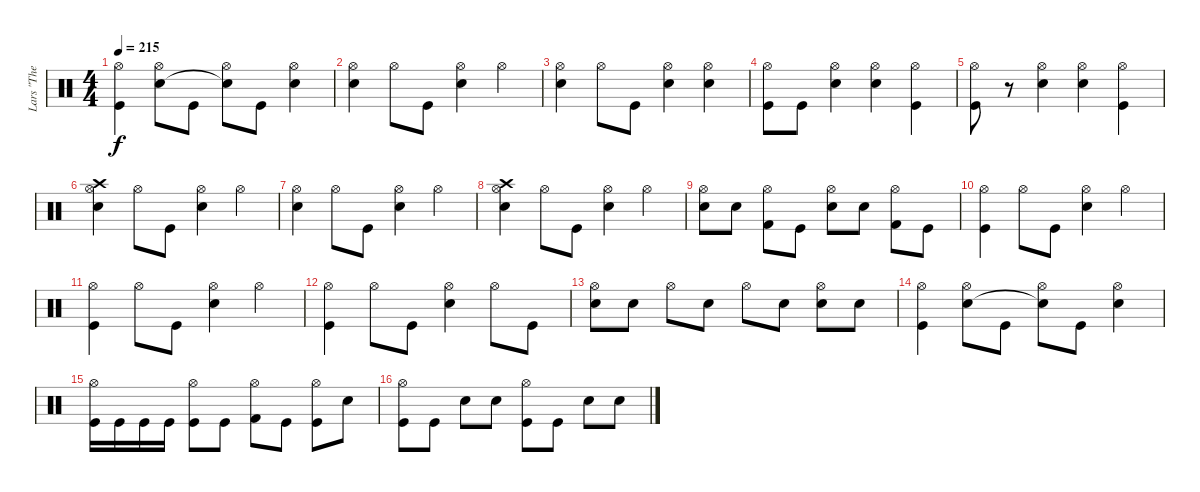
\track ("Lars \"The Antichrist\" Ulrich" "Lars \"The ") {instrument percussion}
\staff {score}
\articulation defaults
\ts (4 4)
\tempo 215
\clef neutral
\ks c
("Hi-Hat (open)" "Kick (hit)").4{dy f} ("Hi-Hat (open)" "Electric Snare (hit)").8 "Kick (hit)".8 ("Hi-Hat (open)" "Snare (hit)"{t}).8 "Kick (hit)".8 ("Hi-Hat (open)" "Electric Snare (hit)").4 |
("Hi-Hat (open)" "Electric Snare (hit)").4 "Hi-Hat (open)".8 "Kick (hit)".8 ("Hi-Hat (open)" "Electric Snare (hit)").4 "Hi-Hat (open)".4 |
("Hi-Hat (open)" "Electric Snare (hit)").4 "Hi-Hat (open)".8 "Kick (hit)".8 ("Hi-Hat (open)" "Electric Snare (hit)").4 ("Hi-Hat (open)" "Electric Snare (hit)").4 |
("Hi-Hat (open)" "Kick (hit)").8 "Kick (hit)".8 ("Hi-Hat (open)" "Electric Snare (hit)").4 ("Hi-Hat (open)" "Electric Snare (hit)").4 ("Hi-Hat (open)" "Kick (hit)").4 |
("Hi-Hat (open)" "Kick (hit)").8 r.8 ("Hi-Hat (open)" "Electric Snare (hit)").4 ("Hi-Hat (open)" "Electric Snare (hit)").4 ("Hi-Hat (open)" "Kick (hit)").4 |
("Hi-Hat (open)" "Crash high (hit)" "Electric Snare (hit)").4 "Hi-Hat (open)".8 "Kick (hit)".8 ("Hi-Hat (open)" "Electric Snare (hit)").4 "Hi-Hat (open)".4 |
("Hi-Hat (open)" "Electric Snare (hit)").4 "Hi-Hat (open)".8 "Kick (hit)".8 ("Hi-Hat (open)" "Electric Snare (hit)").4 "Hi-Hat (open)".4 |
("Hi-Hat (open)" "Crash high (hit)" "Electric Snare (hit)").4 "Hi-Hat (open)".8 "Kick (hit)".8 ("Hi-Hat (open)" "Electric Snare (hit)").4 "Hi-Hat (open)".4 |
("Hi-Hat (open)" "Electric Snare (hit)").8 "Electric Snare (hit)".8 ("Hi-Hat (open)" "Kick (hit) 2").8 "Kick (hit)".8 ("Hi-Hat (open)" "Electric Snare (hit)").8 "Electric Snare (hit)".8 ("Hi-Hat (open)" "Kick (hit) 2").8 "Kick (hit)".8 |
("Hi-Hat (open)" "Kick (hit)").4 "Hi-Hat (open)".8 "Kick (hit)".8 ("Hi-Hat (open)" "Electric Snare (hit)").4 "Hi-Hat (open)".4 |
("Hi-Hat (open)" "Kick (hit)").4 "Hi-Hat (open)".8 "Kick (hit)".8 ("Hi-Hat (open)" "Electric Snare (hit)").4 "Hi-Hat (open)".4 |
("Hi-Hat (open)" "Kick (hit)").4 "Hi-Hat (open)".8 "Kick (hit)".8 ("Hi-Hat (open)" "Electric Snare (hit)").4 "Hi-Hat (open)".8 "Kick (hit)".8 |
("Hi-Hat (open)" "Electric Snare (hit)").8 "Electric Snare (hit)".8 "Hi-Hat (open)".8 "Electric Snare (hit)".8 "Hi-Hat (open)".8 "Electric Snare (hit)".8 ("Hi-Hat (open)" "Electric Snare (hit)").8 "Electric Snare (hit)".8 |
("Hi-Hat (open)" "Kick (hit)").4 ("Hi-Hat (open)" "Electric Snare (hit)").8 "Kick (hit)".8 ("Hi-Hat (open)" "Snare (hit)"{t}).8 "Kick (hit)".8 ("Hi-Hat (open)" "Electric Snare (hit)").4 |
("Hi-Hat (open)" "Kick (hit)").16 "Kick (hit)".16 "Kick (hit)".16 "Kick (hit)".16 ("Hi-Hat (open)" "Kick (hit)").8 "Kick (hit)".8 ("Hi-Hat (open)" "Kick (hit) 2").8 "Kick (hit)".8 ("Hi-Hat (open)" "Kick (hit)").8 "Electric Snare (hit)".8 |
("Hi-Hat (open)" "Kick (hit)").8 "Kick (hit)".8 "Electric Snare (hit)".8 "Electric Snare (hit)".8 ("Hi-Hat (open)" "Kick (hit)").8 "Kick (hit)".8 "Electric Snare (hit)".8 "Electric Snare (hit)".8
